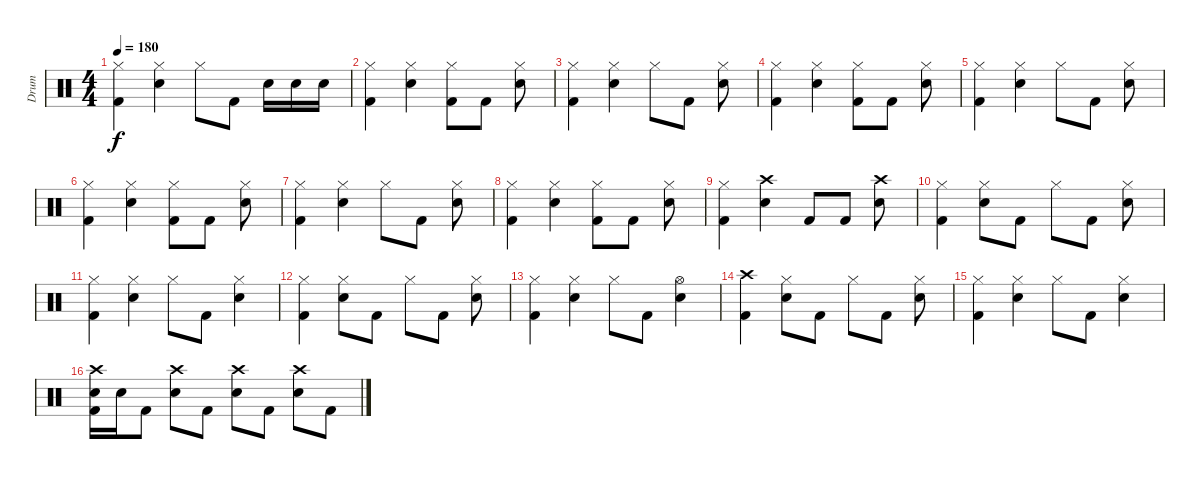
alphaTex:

\track ("Drum" "Drum") {instrument percussion}
\staff {score}
\articulation defaults
\ts (4 4)
\tempo 180
\clef neutral
\ks c
("Hi-Hat (closed)" "Kick (hit) 2").4{dy f} ("Hi-Hat (closed)" "Electric Snare (hit)").4 "Hi-Hat (closed)".8 "Kick (hit) 2".8 "Electric Snare (hit)".16 "Electric Snare (hit)".16 "Electric Snare (hit)".16 |
("Hi-Hat (closed)" "Kick (hit) 2").4 ("Hi-Hat (closed)" "Electric Snare (hit)").4 ("Hi-Hat (closed)" "Kick (hit) 2").8 "Kick (hit) 2".8 ("Hi-Hat (closed)" "Electric Snare (hit)").8 |
("Hi-Hat (closed)" "Kick (hit) 2").4 ("Hi-Hat (closed)" "Electric Snare (hit)").4 "Hi-Hat (closed)".8 "Kick (hit) 2".8 ("Hi-Hat (closed)" "Electric Snare (hit)").8 |
("Hi-Hat (closed)" "Kick (hit) 2").4 ("Hi-Hat (closed)" "Electric Snare (hit)").4 ("Hi-Hat (closed)" "Kick (hit) 2").8 "Kick (hit) 2".8 ("Hi-Hat (closed)" "Electric Snare (hit)").8 |
("Hi-Hat (closed)" "Kick (hit) 2").4 ("Hi-Hat (closed)" "Electric Snare (hit)").4 "Hi-Hat (closed)".8 "Kick (hit) 2".8 ("Hi-Hat (closed)" "Electric Snare (hit)").8 |
("Hi-Hat (closed)" "Kick (hit) 2").4 ("Hi-Hat (closed)" "Electric Snare (hit)").4 ("Hi-Hat (closed)" "Kick (hit) 2").8 "Kick (hit) 2".8 ("Hi-Hat (closed)" "Electric Snare (hit)").8 |
("Hi-Hat (closed)" "Kick (hit) 2").4 ("Hi-Hat (closed)" "Electric Snare (hit)").4 "Hi-Hat (closed)".8 "Kick (hit) 2".8 ("Hi-Hat (closed)" "Electric Snare (hit)").8 |
("Hi-Hat (closed)" "Kick (hit) 2").4 ("Hi-Hat (closed)" "Electric Snare (hit)").4 ("Hi-Hat (closed)" "Kick (hit) 2").8 "Kick (hit) 2".8 ("Hi-Hat (closed)" "Electric Snare (hit)").8 |
("Hi-Hat (closed)" "Kick (hit) 2").4 ("Crash high (hit)" "Electric Snare (hit)").4 "Kick (hit) 2".8 "Kick (hit) 2".8 ("Crash high (hit)" "Electric Snare (hit)").8 |
("Hi-Hat (closed)" "Kick (hit) 2").4 ("Hi-Hat (closed)" "Electric Snare (hit)").8 "Kick (hit) 2".8 "Hi-Hat (closed)".8 "Kick (hit) 2".8 ("Hi-Hat (closed)" "Electric Snare (hit)").8 |
("Hi-Hat (closed)" "Kick (hit) 2").4 ("Hi-Hat (closed)" "Electric Snare (hit)").4 "Hi-Hat (closed)".8 "Kick (hit) 2".8 ("Hi-Hat (closed)" "Electric Snare (hit)").4 |
("Hi-Hat (closed)" "Kick (hit) 2").4 ("Hi-Hat (closed)" "Electric Snare (hit)").8 "Kick (hit) 2".8 "Hi-Hat (closed)".8 "Kick (hit) 2".8 ("Hi-Hat (closed)" "Electric Snare (hit)").8 |
("Hi-Hat (closed)" "Kick (hit) 2").4 ("Hi-Hat (closed)" "Electric Snare (hit)").4 "Hi-Hat (closed)".8 "Kick (hit) 2".8 ("Hi-Hat (open)" "Electric Snare (hit)").4 |
("Crash high (hit)" "Kick (hit) 2").4 ("Hi-Hat (closed)" "Electric Snare (hit)").8 "Kick (hit) 2".8 "Hi-Hat (closed)".8 "Kick (hit) 2".8 ("Hi-Hat (closed)" "Electric Snare (hit)").8 |
("Hi-Hat (closed)" "Kick (hit) 2").4 ("Hi-Hat (closed)" "Electric Snare (hit)").4 "Hi-Hat (closed)".8 "Kick (hit) 2".8 ("Hi-Hat (closed)" "Electric Snare (hit)").4 |
("Crash high (hit)" "Electric Snare (hit)" "Kick (hit) 2").16 "Electric Snare (hit)".16 "Kick (hit) 2".8 ("Crash high (hit)" "Electric Snare (hit)").8 "Kick (hit) 2".8 ("Crash high (hit)" "Electric Snare (hit)").8 "Kick (hit) 2".8 ("Crash high (hit)" "Electric Snare (hit)").8 "Kick (hit) 2".8
